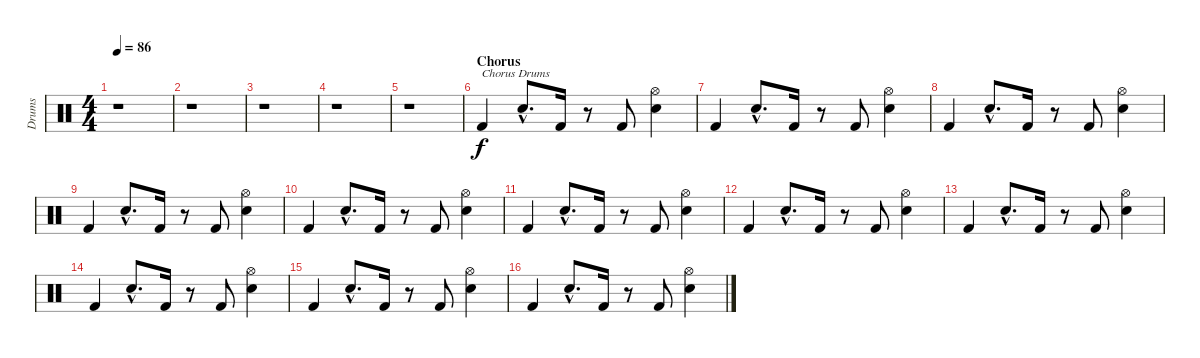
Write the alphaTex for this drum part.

\track ("Drums" "Drums") {instrument percussion}
\staff {score}
\articulation defaults
\ts (4 4)
\tempo 86
\clef neutral
\ks c
r.1{dy f} |
r.1 |
r.1 |
r.1 |
r.1 |
\section ("" "Chorus")
"Kick (hit) 2".4{txt "Chorus Drums"} "Snare (hit) 2"{hac}.8{d} "Kick (hit) 2".16 r.8 "Kick (hit) 2".8 ("Hi-Hat (open)" "Snare (hit) 2").4 |
"Kick (hit) 2".4 "Snare (hit) 2"{hac}.8{d} "Kick (hit) 2".16 r.8 "Kick (hit) 2".8 ("Hi-Hat (open)" "Snare (hit) 2").4 |
"Kick (hit) 2".4 "Snare (hit) 2"{hac}.8{d} "Kick (hit) 2".16 r.8 "Kick (hit) 2".8 ("Hi-Hat (open)" "Snare (hit) 2").4 |
"Kick (hit) 2".4 "Snare (hit) 2"{hac}.8{d} "Kick (hit) 2".16 r.8 "Kick (hit) 2".8 ("Hi-Hat (open)" "Snare (hit) 2").4 |
"Kick (hit) 2".4 "Snare (hit) 2"{hac}.8{d} "Kick (hit) 2".16 r.8 "Kick (hit) 2".8 ("Hi-Hat (open)" "Snare (hit) 2").4 |
"Kick (hit) 2".4 "Snare (hit) 2"{hac}.8{d} "Kick (hit) 2".16 r.8 "Kick (hit) 2".8 ("Hi-Hat (open)" "Snare (hit) 2").4 |
"Kick (hit) 2".4 "Snare (hit) 2"{hac}.8{d} "Kick (hit) 2".16 r.8 "Kick (hit) 2".8 ("Hi-Hat (open)" "Snare (hit) 2").4 |
"Kick (hit) 2".4 "Snare (hit) 2"{hac}.8{d} "Kick (hit) 2".16 r.8 "Kick (hit) 2".8 ("Hi-Hat (open)" "Snare (hit) 2").4 |
"Kick (hit) 2".4 "Snare (hit) 2"{hac}.8{d} "Kick (hit) 2".16 r.8 "Kick (hit) 2".8 ("Hi-Hat (open)" "Snare (hit) 2").4 |
"Kick (hit) 2".4 "Snare (hit) 2"{hac}.8{d} "Kick (hit) 2".16 r.8 "Kick (hit) 2".8 ("Hi-Hat (open)" "Snare (hit) 2").4 |
"Kick (hit) 2".4 "Snare (hit) 2"{hac}.8{d} "Kick (hit) 2".16 r.8 "Kick (hit) 2".8 ("Hi-Hat (open)" "Snare (hit) 2").4
